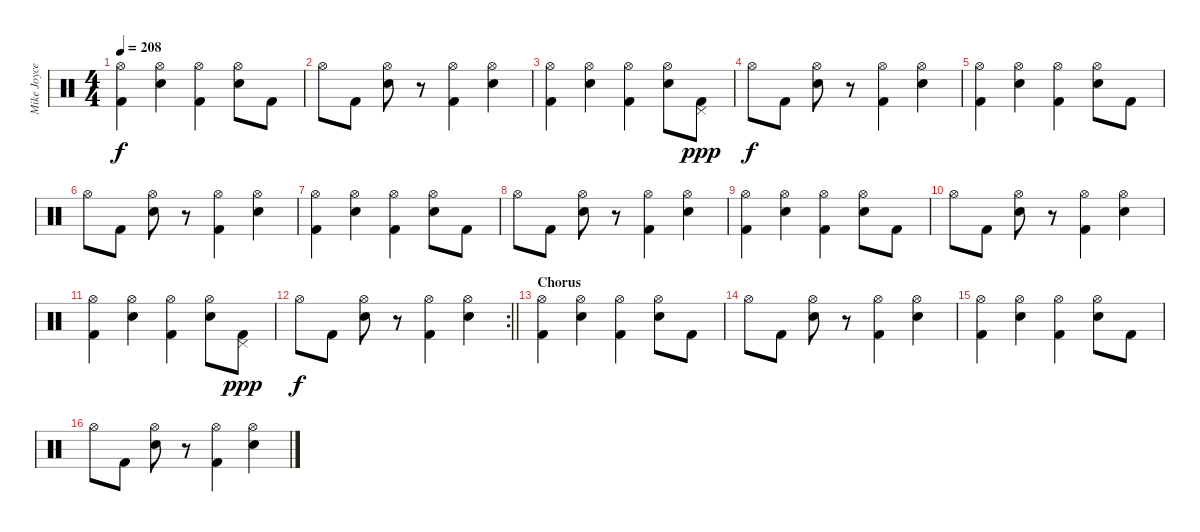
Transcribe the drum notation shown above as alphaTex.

\track ("Mike Joyce" "Mike Joyce") {instrument percussion}
\staff {score}
\articulation defaults
\ts (4 4)
\tempo 208
\clef neutral
\ks c
("Hi-Hat (open)" "Kick (hit) 2").4{dy f} ("Hi-Hat (open)" "Snare (hit) 2").4 ("Hi-Hat (open)" "Kick (hit) 2").4 ("Hi-Hat (open)" "Snare (hit) 2").8 "Kick (hit) 2".8 |
"Hi-Hat (open)".8 "Kick (hit) 2".8 ("Hi-Hat (open)" "Snare (hit) 2").8 r.8 ("Hi-Hat (open)" "Kick (hit) 2").4 ("Hi-Hat (open)" "Snare (hit) 2").4 |
("Hi-Hat (open)" "Kick (hit) 2").4 ("Hi-Hat (open)" "Snare (hit) 2").4 ("Hi-Hat (open)" "Kick (hit) 2").4 ("Hi-Hat (open)" "Snare (hit) 2").8 ("Pedal Hi-Hat (hit)" "Kick (hit) 2").8{dy ppp} |
"Hi-Hat (open)".8{dy f} "Kick (hit) 2".8 ("Hi-Hat (open)" "Snare (hit) 2").8 r.8 ("Hi-Hat (open)" "Kick (hit) 2").4 ("Hi-Hat (open)" "Snare (hit) 2").4 |
("Hi-Hat (open)" "Kick (hit) 2").4 ("Hi-Hat (open)" "Snare (hit) 2").4 ("Hi-Hat (open)" "Kick (hit) 2").4 ("Hi-Hat (open)" "Snare (hit) 2").8 "Kick (hit) 2".8 |
"Hi-Hat (open)".8 "Kick (hit) 2".8 ("Hi-Hat (open)" "Snare (hit) 2").8 r.8 ("Hi-Hat (open)" "Kick (hit) 2").4 ("Hi-Hat (open)" "Snare (hit) 2").4 |
("Hi-Hat (open)" "Kick (hit) 2").4 ("Hi-Hat (open)" "Snare (hit) 2").4 ("Hi-Hat (open)" "Kick (hit) 2").4 ("Hi-Hat (open)" "Snare (hit) 2").8 "Kick (hit) 2".8 |
"Hi-Hat (open)".8 "Kick (hit) 2".8 ("Hi-Hat (open)" "Snare (hit) 2").8 r.8 ("Hi-Hat (open)" "Kick (hit) 2").4 ("Hi-Hat (open)" "Snare (hit) 2").4 |
("Hi-Hat (open)" "Kick (hit) 2").4 ("Hi-Hat (open)" "Snare (hit) 2").4 ("Hi-Hat (open)" "Kick (hit) 2").4 ("Hi-Hat (open)" "Snare (hit) 2").8 "Kick (hit) 2".8 |
"Hi-Hat (open)".8 "Kick (hit) 2".8 ("Hi-Hat (open)" "Snare (hit) 2").8 r.8 ("Hi-Hat (open)" "Kick (hit) 2").4 ("Hi-Hat (open)" "Snare (hit) 2").4 |
("Hi-Hat (open)" "Kick (hit) 2").4 ("Hi-Hat (open)" "Snare (hit) 2").4 ("Hi-Hat (open)" "Kick (hit) 2").4 ("Hi-Hat (open)" "Snare (hit) 2").8 ("Pedal Hi-Hat (hit)" "Kick (hit) 2").8{dy ppp} |
\rc 2
\barLineRight lightlight "Hi-Hat (open)".8{dy f} "Kick (hit) 2".8
("Hi-Hat (open)" "Snare (hit) 2").8 r.8 ("Hi-Hat (open)" "Kick (hit) 2").4 ("Hi-Hat (open)" "Snare (hit) 2").4 |
\section ("" "Chorus")
("Hi-Hat (open)" "Kick (hit) 2").4 ("Hi-Hat (open)" "Snare (hit) 2").4 ("Hi-Hat (open)" "Kick (hit) 2").4 ("Hi-Hat (open)" "Snare (hit) 2").8 "Kick (hit) 2".8 |
"Hi-Hat (open)".8 "Kick (hit) 2".8 ("Hi-Hat (open)" "Snare (hit) 2").8 r.8 ("Hi-Hat (open)" "Kick (hit) 2").4 ("Hi-Hat (open)" "Snare (hit) 2").4 |
("Hi-Hat (open)" "Kick (hit) 2").4 ("Hi-Hat (open)" "Snare (hit) 2").4 ("Hi-Hat (open)" "Kick (hit) 2").4 ("Hi-Hat (open)" "Snare (hit) 2").8 "Kick (hit) 2".8 |
"Hi-Hat (open)".8 "Kick (hit) 2".8 ("Hi-Hat (open)" "Snare (hit) 2").8 r.8 ("Hi-Hat (open)" "Kick (hit) 2").4 ("Hi-Hat (open)" "Snare (hit) 2").4
